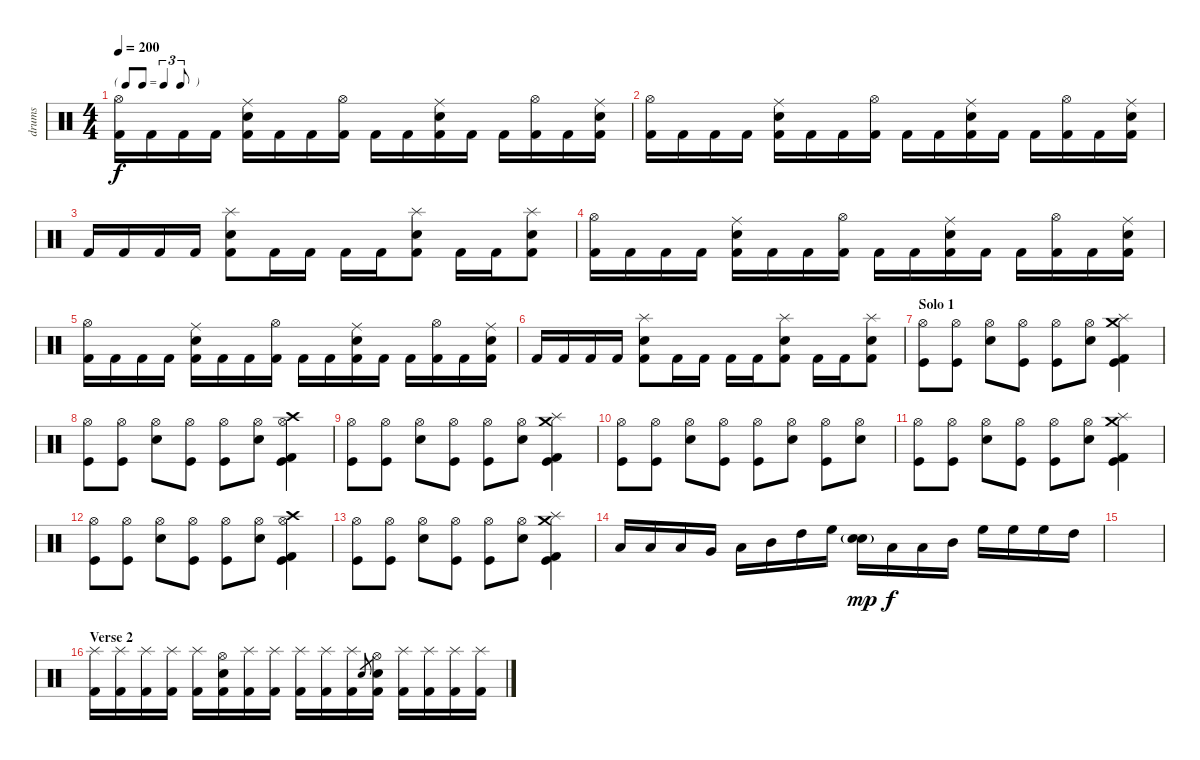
\track ("drums" "drums") {instrument percussion}
\staff {score}
\articulation defaults
\ts (4 4)
\tf triplet8th
\tempo 200
\clef neutral
\ks c
("Kick (hit) 2" "Hi-Hat (open)").16{dy f} "Kick (hit) 2".16 "Kick (hit) 2".16 "Kick (hit) 2".16 ("Kick (hit) 2" "Electric Snare (hit)" "Ride (middle)").16 "Kick (hit) 2".16 "Kick (hit) 2".16 ("Kick (hit) 2" "Hi-Hat (open)").16 "Kick (hit) 2".16 "Kick (hit) 2".16 ("Kick (hit) 2" "Electric Snare (hit)" "Ride (middle)").16 "Kick (hit) 2".16 "Kick (hit) 2".16 ("Kick (hit) 2" "Hi-Hat (open)").16 "Kick (hit) 2".16 ("Kick (hit) 2" "Electric Snare (hit)" "Ride (middle)").16 |
("Kick (hit) 2" "Hi-Hat (open)").16 "Kick (hit) 2".16 "Kick (hit) 2".16 "Kick (hit) 2".16 ("Kick (hit) 2" "Electric Snare (hit)" "Ride (middle)").16 "Kick (hit) 2".16 "Kick (hit) 2".16 ("Kick (hit) 2" "Hi-Hat (open)").16 "Kick (hit) 2".16 "Kick (hit) 2".16 ("Kick (hit) 2" "Electric Snare (hit)" "Ride (middle)").16 "Kick (hit) 2".16 "Kick (hit) 2".16 ("Kick (hit) 2" "Hi-Hat (open)").16 "Kick (hit) 2".16 ("Kick (hit) 2" "Electric Snare (hit)" "Ride (middle)").16 |
"Kick (hit) 2".16 "Kick (hit) 2".16 "Kick (hit) 2".16 "Kick (hit) 2".16 ("Kick (hit) 2" "Electric Snare (hit)" "Splash (hit)").8 "Kick (hit) 2".16 "Kick (hit) 2".16 "Kick (hit) 2".16 "Kick (hit) 2".16 ("Kick (hit) 2" "Electric Snare (hit)" "Splash (hit)").8 "Kick (hit) 2".16 "Kick (hit) 2".16 ("Kick (hit) 2" "Electric Snare (hit)" "Splash (hit)").8 |
("Kick (hit) 2" "Hi-Hat (open)").16 "Kick (hit) 2".16 "Kick (hit) 2".16 "Kick (hit) 2".16 ("Kick (hit) 2" "Electric Snare (hit)" "Ride (middle)").16 "Kick (hit) 2".16 "Kick (hit) 2".16 ("Kick (hit) 2" "Hi-Hat (open)").16 "Kick (hit) 2".16 "Kick (hit) 2".16 ("Kick (hit) 2" "Electric Snare (hit)" "Ride (middle)").16 "Kick (hit) 2".16 "Kick (hit) 2".16 ("Kick (hit) 2" "Hi-Hat (open)").16 "Kick (hit) 2".16 ("Kick (hit) 2" "Electric Snare (hit)" "Ride (middle)").16 |
("Kick (hit) 2" "Hi-Hat (open)").16 "Kick (hit) 2".16 "Kick (hit) 2".16 "Kick (hit) 2".16 ("Kick (hit) 2" "Electric Snare (hit)" "Ride (middle)").16 "Kick (hit) 2".16 "Kick (hit) 2".16 ("Kick (hit) 2" "Hi-Hat (open)").16 "Kick (hit) 2".16 "Kick (hit) 2".16 ("Kick (hit) 2" "Electric Snare (hit)" "Ride (middle)").16 "Kick (hit) 2".16 "Kick (hit) 2".16 ("Kick (hit) 2" "Hi-Hat (open)").16 "Kick (hit) 2".16 ("Kick (hit) 2" "Electric Snare (hit)" "Ride (middle)").16 |
"Kick (hit) 2".16 "Kick (hit) 2".16 "Kick (hit) 2".16 "Kick (hit) 2".16 ("Kick (hit) 2" "Electric Snare (hit)" "Splash (hit)").8 "Kick (hit) 2".16 "Kick (hit) 2".16 "Kick (hit) 2".16 "Kick (hit) 2".16 ("Kick (hit) 2" "Electric Snare (hit)" "Splash (hit)").8 "Kick (hit) 2".16 "Kick (hit) 2".16 ("Kick (hit) 2" "Electric Snare (hit)" "Splash (hit)").8 |
\section ("" "Solo 1")
("Hi-Hat (open)" "Kick (hit)").8 ("Hi-Hat (open)" "Kick (hit)").8 ("Hi-Hat (open)" "Snare (hit) 2").8 ("Hi-Hat (open)" "Kick (hit)").8 ("Hi-Hat (open)" "Kick (hit)").8 ("Hi-Hat (open)" "Snare (hit) 2").8 ("Crash medium (hit)" "Splash (hit)" "Kick (hit)" "Kick (hit) 2").4 |
("Hi-Hat (open)" "Kick (hit)").8 ("Hi-Hat (open)" "Kick (hit)").8 ("Hi-Hat (open)" "Snare (hit) 2").8 ("Hi-Hat (open)" "Kick (hit)").8 ("Hi-Hat (open)" "Kick (hit)").8 ("Hi-Hat (open)" "Snare (hit) 2").8 ("Crash high (hit)" "Hi-Hat (open)" "Kick (hit)" "Kick (hit) 2").4 |
("Hi-Hat (open)" "Kick (hit)").8 ("Hi-Hat (open)" "Kick (hit)").8 ("Hi-Hat (open)" "Snare (hit) 2").8 ("Hi-Hat (open)" "Kick (hit)").8 ("Hi-Hat (open)" "Kick (hit)").8 ("Hi-Hat (open)" "Snare (hit) 2").8 ("Crash medium (hit)" "Splash (hit)" "Kick (hit)" "Kick (hit) 2").4 |
("Hi-Hat (open)" "Kick (hit)").8 ("Hi-Hat (open)" "Kick (hit)").8 ("Hi-Hat (open)" "Snare (hit) 2").8 ("Hi-Hat (open)" "Kick (hit)").8 ("Hi-Hat (open)" "Kick (hit)").8 ("Hi-Hat (open)" "Snare (hit) 2").8 ("Hi-Hat (open)" "Kick (hit)").8 ("Hi-Hat (open)" "Snare (hit) 2").8 |
("Hi-Hat (open)" "Kick (hit)").8 ("Hi-Hat (open)" "Kick (hit)").8 ("Hi-Hat (open)" "Snare (hit) 2").8 ("Hi-Hat (open)" "Kick (hit)").8 ("Hi-Hat (open)" "Kick (hit)").8 ("Hi-Hat (open)" "Snare (hit) 2").8 ("Crash medium (hit)" "Splash (hit)" "Kick (hit)" "Kick (hit) 2").4 |
("Hi-Hat (open)" "Kick (hit)").8 ("Hi-Hat (open)" "Kick (hit)").8 ("Hi-Hat (open)" "Snare (hit) 2").8 ("Hi-Hat (open)" "Kick (hit)").8 ("Hi-Hat (open)" "Kick (hit)").8 ("Hi-Hat (open)" "Snare (hit) 2").8 ("Crash high (hit)" "Hi-Hat (open)" "Kick (hit)" "Kick (hit) 2").4 |
("Hi-Hat (open)" "Kick (hit)").8 ("Hi-Hat (open)" "Kick (hit)").8 ("Hi-Hat (open)" "Snare (hit) 2").8 ("Hi-Hat (open)" "Kick (hit)").8 ("Hi-Hat (open)" "Kick (hit)").8 ("Hi-Hat (open)" "Snare (hit) 2").8 ("Crash medium (hit)" "Splash (hit)" "Kick (hit)" "Kick (hit) 2").4 |
"Low Floor Tom (hit)".16 "Low Floor Tom (hit)".16 "Low Floor Tom (hit)".16 "Very Low Tom (hit)".16 "Low Tom (hit)".16 "Mid Tom (hit)".16 "High Tom (hit)".16 "High Floor Tom (hit)".16 ("Electric Snare (hit)"{g} "Snare (hit) 2").16{dy mp} "Low Floor Tom (hit)".16{dy f} "Low Tom (hit)".16 "Mid Tom (hit)".16 "High Floor Tom (hit)".16 "High Floor Tom (hit)".16 "High Floor Tom (hit)".16 "High Tom (hit)".16 |
|
\section ("" "Verse 2")
("Kick (hit) 2" "Splash (hit)").16 ("Kick (hit) 2" "Splash (hit)").16 ("Kick (hit) 2" "Splash (hit)").16 ("Kick (hit) 2" "Splash (hit)").16 ("Kick (hit) 2" "Splash (hit)").16 ("Kick (hit) 2" "Electric Snare (hit)" "Hi-Hat (open)").16 ("Kick (hit) 2" "Splash (hit)").16 ("Kick (hit) 2" "Splash (hit)").16 ("Kick (hit) 2" "Splash (hit)").16 ("Kick (hit) 2" "Splash (hit)").16 ("Kick (hit) 2" "Splash (hit)").16 "Electric Snare (hit)".8{gr} ("Kick (hit) 2" "Electric Snare (hit)" "Hi-Hat (open)").16 ("Kick (hit) 2" "Splash (hit)").16 ("Kick (hit) 2" "Splash (hit)").16 ("Kick (hit) 2" "Splash (hit)").16 ("Kick (hit) 2" "Splash (hit)").16
